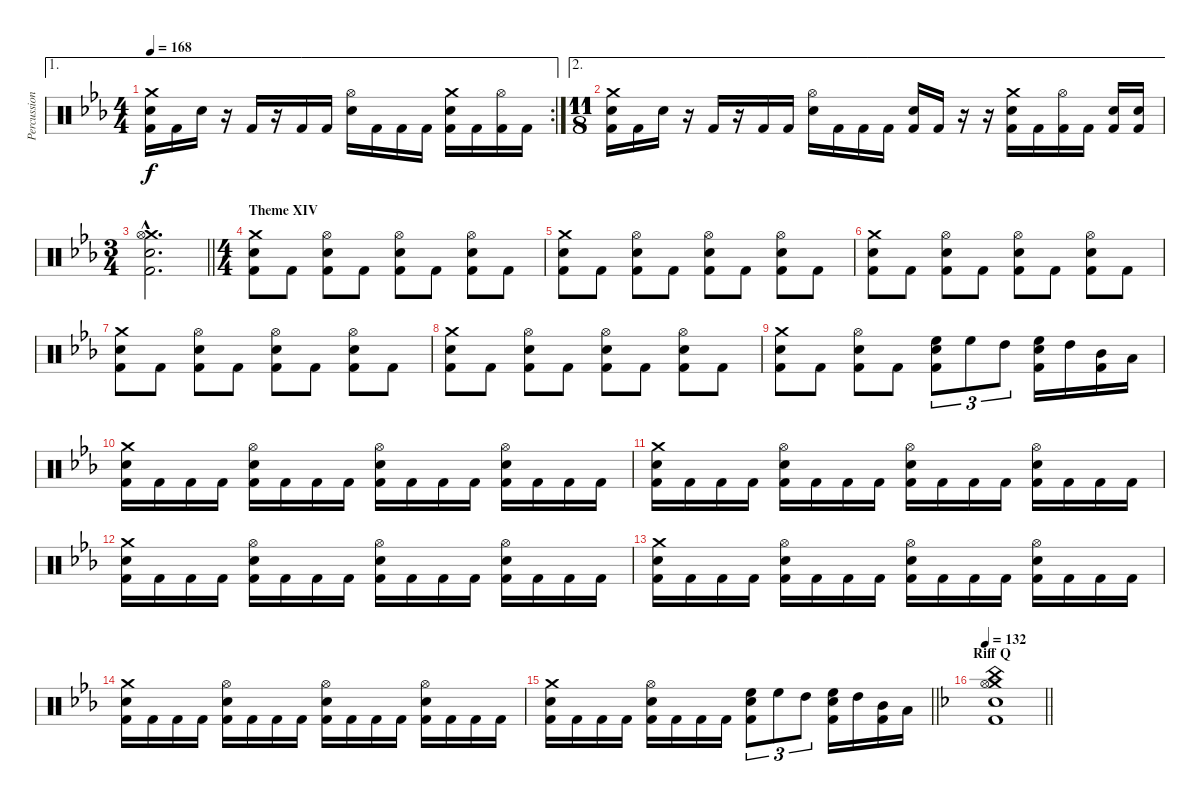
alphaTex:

\track ("Percussion" "Percussion") {instrument percussion}
\staff {score}
\articulation defaults
\ae 1
\rc 2
\ts (4 4)
\tempo 168
\clef neutral
\ks cminor
("Crash medium (hit)" "Snare (hit) 2" "Kick (hit) 2").16{dy f} "Kick (hit) 2".16 "Snare (hit) 2".16 r.16 "Kick (hit) 2".16 r.16 "Kick (hit) 2".16 "Kick (hit) 2".16 ("Hi-Hat (open)" "Snare (hit) 2").16 "Kick (hit) 2".16 "Kick (hit) 2".16 "Kick (hit) 2".16 ("Crash medium (hit)" "Snare (hit) 2" "Kick (hit) 2").16 "Kick (hit) 2".16 ("Hi-Hat (open)" "Kick (hit) 2").16 "Kick (hit) 2".16 |
\ae 2
\ts (11 8)
("Crash medium (hit)" "Snare (hit) 2" "Kick (hit) 2").16 "Kick (hit) 2".16 "Snare (hit) 2".16 r.16 "Kick (hit) 2".16 r.16 "Kick (hit) 2".16 "Kick (hit) 2".16 ("Hi-Hat (open)" "Snare (hit) 2").16 "Kick (hit) 2".16 "Kick (hit) 2".16 "Kick (hit) 2".16 ("Snare (hit) 2" "Kick (hit) 2").16 "Kick (hit) 2".16 r.16 r.16 ("Crash medium (hit)" "Snare (hit) 2" "Kick (hit) 2").16 "Kick (hit) 2".16 ("Hi-Hat (open)" "Kick (hit) 2").16 "Kick (hit) 2".16 ("Snare (hit) 2" "Kick (hit) 2").16 ("Snare (hit) 2" "Kick (hit) 2").16 |
\ts (3 4)
\barLineRight lightlight
("Crash medium (hit)"{hac} "Hi-Hat (open)"{hac} "Snare (hit) 2"{hac} "Kick (hit) 2"{hac}).2{d} |
\ts (4 4)
\section ("" "Theme XIV")
("Crash medium (hit)" "Snare (hit) 2" "Kick (hit) 2").8 "Kick (hit) 2".8 ("Hi-Hat (open)" "Snare (hit) 2" "Kick (hit) 2").8 "Kick (hit) 2".8 ("Hi-Hat (open)" "Snare (hit) 2" "Kick (hit) 2").8 "Kick (hit) 2".8 ("Hi-Hat (open)" "Snare (hit) 2" "Kick (hit) 2").8 "Kick (hit) 2".8 |
("Crash medium (hit)" "Snare (hit) 2" "Kick (hit) 2").8 "Kick (hit) 2".8 ("Hi-Hat (open)" "Snare (hit) 2" "Kick (hit) 2").8 "Kick (hit) 2".8 ("Hi-Hat (open)" "Snare (hit) 2" "Kick (hit) 2").8 "Kick (hit) 2".8 ("Hi-Hat (open)" "Snare (hit) 2" "Kick (hit) 2").8 "Kick (hit) 2".8 |
("Crash medium (hit)" "Snare (hit) 2" "Kick (hit) 2").8 "Kick (hit) 2".8 ("Hi-Hat (open)" "Snare (hit) 2" "Kick (hit) 2").8 "Kick (hit) 2".8 ("Hi-Hat (open)" "Snare (hit) 2" "Kick (hit) 2").8 "Kick (hit) 2".8 ("Hi-Hat (open)" "Snare (hit) 2" "Kick (hit) 2").8 "Kick (hit) 2".8 |
("Crash medium (hit)" "Snare (hit) 2" "Kick (hit) 2").8 "Kick (hit) 2".8 ("Hi-Hat (open)" "Snare (hit) 2" "Kick (hit) 2").8 "Kick (hit) 2".8 ("Hi-Hat (open)" "Snare (hit) 2" "Kick (hit) 2").8 "Kick (hit) 2".8 ("Hi-Hat (open)" "Snare (hit) 2" "Kick (hit) 2").8 "Kick (hit) 2".8 |
("Crash medium (hit)" "Snare (hit) 2" "Kick (hit) 2").8 "Kick (hit) 2".8 ("Hi-Hat (open)" "Snare (hit) 2" "Kick (hit) 2").8 "Kick (hit) 2".8 ("Hi-Hat (open)" "Snare (hit) 2" "Kick (hit) 2").8 "Kick (hit) 2".8 ("Hi-Hat (open)" "Snare (hit) 2" "Kick (hit) 2").8 "Kick (hit) 2".8 |
("Crash medium (hit)" "Snare (hit) 2" "Kick (hit) 2").8 "Kick (hit) 2".8 ("Hi-Hat (open)" "Snare (hit) 2" "Kick (hit) 2").8 "Kick (hit) 2".8 ("High Floor Tom (hit)" "Snare (hit) 2" "Kick (hit) 2").8{tu (3 2)} "High Floor Tom (hit)".8{tu (3 2)} "High Tom (hit)".8{tu (3 2)} ("High Floor Tom (hit)" "Snare (hit) 2" "Kick (hit) 2").16 "High Tom (hit)".16 ("Mid Tom (hit)" "Kick (hit) 2").16 "Low Tom (hit)".16 |
("Crash medium (hit)" "Snare (hit) 2" "Kick (hit) 2").16 "Kick (hit) 2".16 "Kick (hit) 2".16 "Kick (hit) 2".16 ("Hi-Hat (open)" "Snare (hit) 2" "Kick (hit) 2").16 "Kick (hit) 2".16 "Kick (hit) 2".16 "Kick (hit) 2".16 ("Hi-Hat (open)" "Snare (hit) 2" "Kick (hit) 2").16 "Kick (hit) 2".16 "Kick (hit) 2".16 "Kick (hit) 2".16 ("Hi-Hat (open)" "Snare (hit) 2" "Kick (hit) 2").16 "Kick (hit) 2".16 "Kick (hit) 2".16 "Kick (hit) 2".16 |
("Crash medium (hit)" "Snare (hit) 2" "Kick (hit) 2").16 "Kick (hit) 2".16 "Kick (hit) 2".16 "Kick (hit) 2".16 ("Hi-Hat (open)" "Snare (hit) 2" "Kick (hit) 2").16 "Kick (hit) 2".16 "Kick (hit) 2".16 "Kick (hit) 2".16 ("Hi-Hat (open)" "Snare (hit) 2" "Kick (hit) 2").16 "Kick (hit) 2".16 "Kick (hit) 2".16 "Kick (hit) 2".16 ("Hi-Hat (open)" "Snare (hit) 2" "Kick (hit) 2").16 "Kick (hit) 2".16 "Kick (hit) 2".16 "Kick (hit) 2".16 |
("Crash medium (hit)" "Snare (hit) 2" "Kick (hit) 2").16 "Kick (hit) 2".16 "Kick (hit) 2".16 "Kick (hit) 2".16 ("Hi-Hat (open)" "Snare (hit) 2" "Kick (hit) 2").16 "Kick (hit) 2".16 "Kick (hit) 2".16 "Kick (hit) 2".16 ("Hi-Hat (open)" "Snare (hit) 2" "Kick (hit) 2").16 "Kick (hit) 2".16 "Kick (hit) 2".16 "Kick (hit) 2".16 ("Hi-Hat (open)" "Snare (hit) 2" "Kick (hit) 2").16 "Kick (hit) 2".16 "Kick (hit) 2".16 "Kick (hit) 2".16 |
("Crash medium (hit)" "Snare (hit) 2" "Kick (hit) 2").16 "Kick (hit) 2".16 "Kick (hit) 2".16 "Kick (hit) 2".16 ("Hi-Hat (open)" "Snare (hit) 2" "Kick (hit) 2").16 "Kick (hit) 2".16 "Kick (hit) 2".16 "Kick (hit) 2".16 ("Hi-Hat (open)" "Snare (hit) 2" "Kick (hit) 2").16 "Kick (hit) 2".16 "Kick (hit) 2".16 "Kick (hit) 2".16 ("Hi-Hat (open)" "Snare (hit) 2" "Kick (hit) 2").16 "Kick (hit) 2".16 "Kick (hit) 2".16 "Kick (hit) 2".16 |
("Crash medium (hit)" "Snare (hit) 2" "Kick (hit) 2").16 "Kick (hit) 2".16 "Kick (hit) 2".16 "Kick (hit) 2".16 ("Hi-Hat (open)" "Snare (hit) 2" "Kick (hit) 2").16 "Kick (hit) 2".16 "Kick (hit) 2".16 "Kick (hit) 2".16 ("Hi-Hat (open)" "Snare (hit) 2" "Kick (hit) 2").16 "Kick (hit) 2".16 "Kick (hit) 2".16 "Kick (hit) 2".16 ("Hi-Hat (open)" "Snare (hit) 2" "Kick (hit) 2").16 "Kick (hit) 2".16 "Kick (hit) 2".16 "Kick (hit) 2".16 |
\barLineRight lightlight
("Crash medium (hit)" "Snare (hit) 2" "Kick (hit) 2").16 "Kick (hit) 2".16 "Kick (hit) 2".16 "Kick (hit) 2".16 ("Hi-Hat (open)" "Snare (hit) 2" "Kick (hit) 2").16 "Kick (hit) 2".16 "Kick (hit) 2".16 "Kick (hit) 2".16 ("High Floor Tom (hit)" "Snare (hit) 2" "Kick (hit) 2").8{tu (3 2)} "High Floor Tom (hit)".8{tu (3 2)} "High Tom (hit)".8{tu (3 2)} ("High Floor Tom (hit)" "Snare (hit) 2" "Kick (hit) 2").16 "High Tom (hit)".16 ("Mid Tom (hit)" "Kick (hit) 2").16 "Low Tom (hit)".16 |
\section ("" "Riff Q")
\tempo 132
\barLineRight lightlight
\ks dminor
("Crash medium (hit)" "China (hit)" "Hi-Hat (open)" "Snare (hit) 2" "Kick (hit) 2").1
